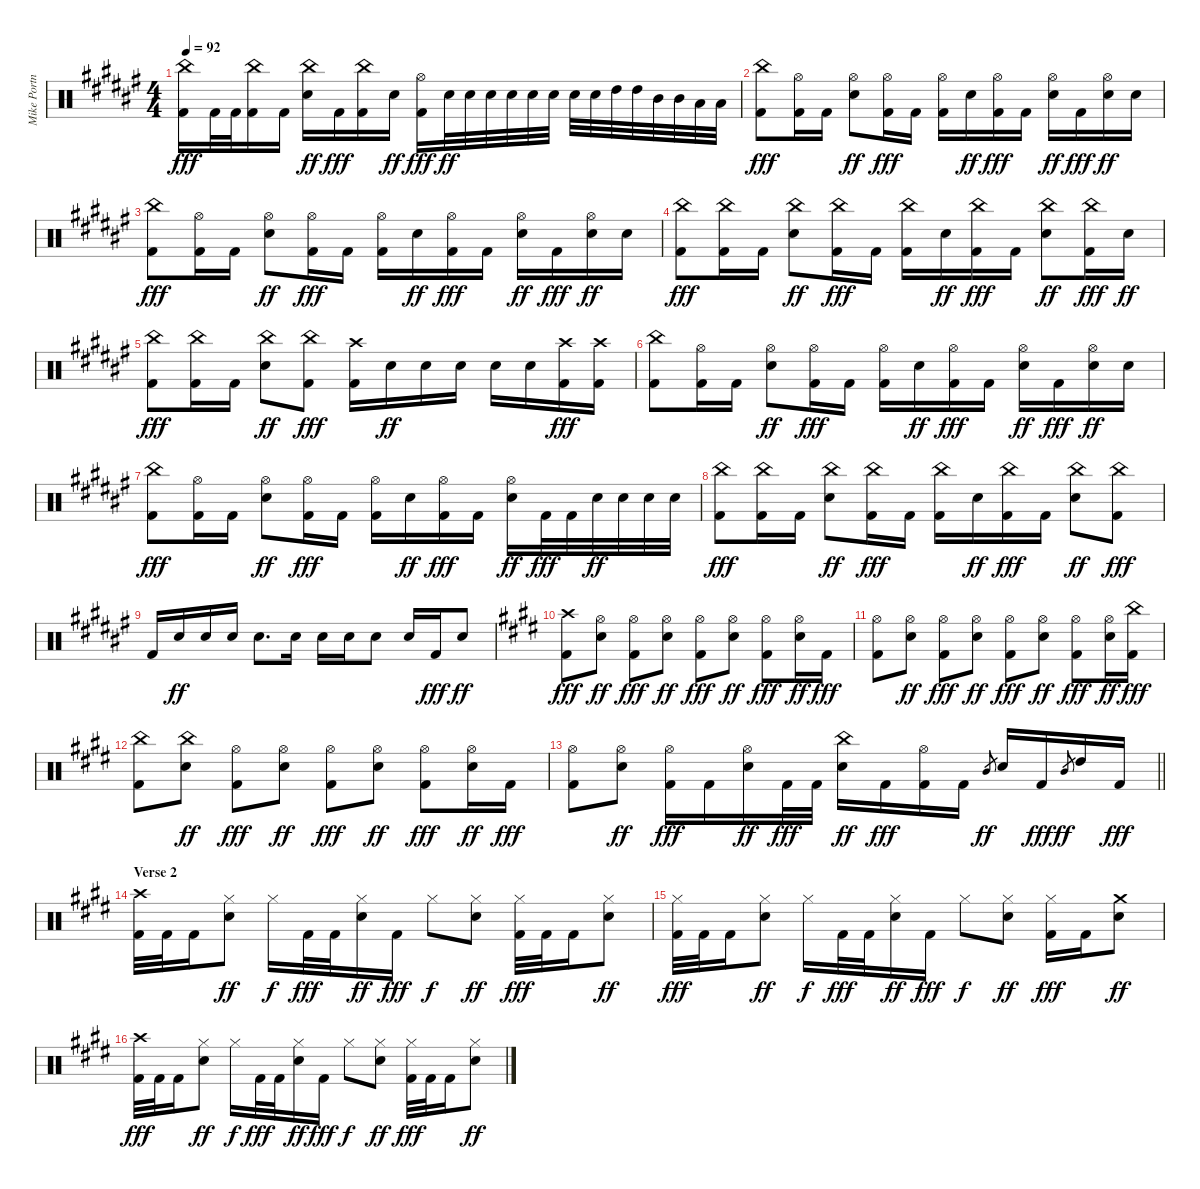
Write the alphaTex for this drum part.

\track ("Mike Portnoy" "Mike Portn") {instrument percussion}
\staff {score}
\articulation defaults
\ts (4 4)
\tempo 92
\clef neutral
\ks f#
("China (hit)" "Kick (hit) 2").16{dy fff} "Kick (hit) 2".32 "Kick (hit) 2".32 ("China (hit)" "Kick (hit) 2").16 "Kick (hit) 2".16 ("China (hit)" "Electric Snare (hit)").16{dy ff} "Kick (hit) 2".16{dy fff} ("China (hit)" "Kick (hit) 2").16 "Electric Snare (hit)".16{dy ff} ("Hi-Hat (open)" "Kick (hit) 2").16{dy fff} "Electric Snare (hit)".32{dy ff} "Electric Snare (hit)".32 "Electric Snare (hit)".32 "Electric Snare (hit)".32 "Electric Snare (hit)".32 "Electric Snare (hit)".32 "Electric Snare (hit)".32 "Electric Snare (hit)".32 "High Tom (hit)".32 "High Tom (hit)".32 "Mid Tom (hit)".32 "Mid Tom (hit)".32 "Low Tom (hit)".32 "Low Tom (hit)".32 |
("China (hit)" "Kick (hit) 2").8{dy fff} ("Hi-Hat (open)" "Kick (hit) 2").16 "Kick (hit) 2".16 ("Hi-Hat (open)" "Electric Snare (hit)").8{dy ff} ("Hi-Hat (open)" "Kick (hit) 2").16{dy fff} "Kick (hit) 2".16 ("Hi-Hat (open)" "Kick (hit) 2").16 "Electric Snare (hit)".16{dy ff} ("Hi-Hat (open)" "Kick (hit) 2").16{dy fff} "Kick (hit) 2".16 ("Hi-Hat (open)" "Electric Snare (hit)").16{dy ff} "Kick (hit) 2".16{dy fff} ("Hi-Hat (open)" "Electric Snare (hit)").16{dy ff} "Electric Snare (hit)".16 |
("China (hit)" "Kick (hit) 2").8{dy fff} ("Hi-Hat (open)" "Kick (hit) 2").16 "Kick (hit) 2".16 ("Hi-Hat (open)" "Electric Snare (hit)").8{dy ff} ("Hi-Hat (open)" "Kick (hit) 2").16{dy fff} "Kick (hit) 2".16 ("Hi-Hat (open)" "Kick (hit) 2").16 "Electric Snare (hit)".16{dy ff} ("Hi-Hat (open)" "Kick (hit) 2").16{dy fff} "Kick (hit) 2".16 ("Hi-Hat (open)" "Electric Snare (hit)").16{dy ff} "Kick (hit) 2".16{dy fff} ("Hi-Hat (open)" "Electric Snare (hit)").16{dy ff} "Electric Snare (hit)".16 |
("China (hit)" "Kick (hit) 2").8{dy fff} ("China (hit)" "Kick (hit) 2").16 "Kick (hit) 2".16 ("China (hit)" "Electric Snare (hit)").8{dy ff} ("China (hit)" "Kick (hit) 2").16{dy fff} "Kick (hit) 2".16 ("China (hit)" "Kick (hit) 2").16 "Electric Snare (hit)".16{dy ff} ("China (hit)" "Kick (hit) 2").16{dy fff} "Kick (hit) 2".16 ("China (hit)" "Electric Snare (hit)").8{dy ff} ("China (hit)" "Kick (hit) 2").16{dy fff} "Electric Snare (hit)".16{dy ff} |
("China (hit)" "Kick (hit) 2").8{dy fff} ("China (hit)" "Kick (hit) 2").16 "Kick (hit) 2".16 ("China (hit)" "Electric Snare (hit)").8{dy ff} ("China (hit)" "Kick (hit) 2").8{dy fff} ("Crash high (hit)" "Kick (hit) 2").16 "Electric Snare (hit)".16{dy ff} "Electric Snare (hit)".16 "Electric Snare (hit)".16 "Electric Snare (hit)".16 "Electric Snare (hit)".16 ("Crash high (hit)" "Kick (hit) 2").16{dy fff} ("Crash high (hit)" "Kick (hit) 2").16 |
("China (hit)" "Kick (hit) 2").8 ("Hi-Hat (open)" "Kick (hit) 2").16 "Kick (hit) 2".16 ("Hi-Hat (open)" "Electric Snare (hit)").8{dy ff} ("Hi-Hat (open)" "Kick (hit) 2").16{dy fff} "Kick (hit) 2".16 ("Hi-Hat (open)" "Kick (hit) 2").16 "Electric Snare (hit)".16{dy ff} ("Hi-Hat (open)" "Kick (hit) 2").16{dy fff} "Kick (hit) 2".16 ("Hi-Hat (open)" "Electric Snare (hit)").16{dy ff} "Kick (hit) 2".16{dy fff} ("Hi-Hat (open)" "Electric Snare (hit)").16{dy ff} "Electric Snare (hit)".16 |
("China (hit)" "Kick (hit) 2").8{dy fff} ("Hi-Hat (open)" "Kick (hit) 2").16 "Kick (hit) 2".16 ("Hi-Hat (open)" "Electric Snare (hit)").8{dy ff} ("Hi-Hat (open)" "Kick (hit) 2").16{dy fff} "Kick (hit) 2".16 ("Hi-Hat (open)" "Kick (hit) 2").16 "Electric Snare (hit)".16{dy ff} ("Hi-Hat (open)" "Kick (hit) 2").16{dy fff} "Kick (hit) 2".16 ("Hi-Hat (open)" "Electric Snare (hit)").16{dy ff} "Kick (hit) 2".32{dy fff} "Kick (hit) 2".32 "Electric Snare (hit)".32{dy ff} "Electric Snare (hit)".32 "Electric Snare (hit)".32 "Electric Snare (hit)".32 |
("China (hit)" "Kick (hit) 2").8{dy fff} ("China (hit)" "Kick (hit) 2").16 "Kick (hit) 2".16 ("China (hit)" "Electric Snare (hit)").8{dy ff} ("China (hit)" "Kick (hit) 2").16{dy fff} "Kick (hit) 2".16 ("China (hit)" "Kick (hit) 2").16 "Electric Snare (hit)".16{dy ff} ("China (hit)" "Kick (hit) 2").16{dy fff} "Kick (hit) 2".16 ("China (hit)" "Electric Snare (hit)").8{dy ff} ("China (hit)" "Kick (hit) 2").8{dy fff} |
"Kick (hit) 2".16 "Electric Snare (hit)".16{dy ff} "Electric Snare (hit)".16 "Electric Snare (hit)".16 "Electric Snare (hit)".8{d} "Electric Snare (hit)".16 "Electric Snare (hit)".16 "Electric Snare (hit)".16 "Electric Snare (hit)".8 "Electric Snare (hit)".16 "Kick (hit) 2".16{dy fff} "Electric Snare (hit)".8{dy ff} |
\ks e
("Crash high (hit)" "Kick (hit) 2").8{dy fff} ("Hi-Hat (open)" "Electric Snare (hit)").8{dy ff} ("Hi-Hat (open)" "Kick (hit) 2").8{dy fff} ("Hi-Hat (open)" "Electric Snare (hit)").8{dy ff} ("Hi-Hat (open)" "Kick (hit) 2").8{dy fff} ("Hi-Hat (open)" "Electric Snare (hit)").8{dy ff} ("Hi-Hat (open)" "Kick (hit) 2").8{dy fff} ("Hi-Hat (open)" "Electric Snare (hit)").16{dy ff} "Kick (hit) 2".16{dy fff} |
("Hi-Hat (open)" "Kick (hit) 2").8 ("Hi-Hat (open)" "Electric Snare (hit)").8{dy ff} ("Hi-Hat (open)" "Kick (hit) 2").8{dy fff} ("Hi-Hat (open)" "Electric Snare (hit)").8{dy ff} ("Hi-Hat (open)" "Kick (hit) 2").8{dy fff} ("Hi-Hat (open)" "Electric Snare (hit)").8{dy ff} ("Hi-Hat (open)" "Kick (hit) 2").8{dy fff} ("Hi-Hat (open)" "Electric Snare (hit)").16{dy ff} ("China (hit)" "Kick (hit) 2").16{dy fff} |
("China (hit)" "Kick (hit) 2").8 ("China (hit)" "Electric Snare (hit)").8{dy ff} ("Hi-Hat (open)" "Kick (hit) 2").8{dy fff} ("Hi-Hat (open)" "Electric Snare (hit)").8{dy ff} ("Hi-Hat (open)" "Kick (hit) 2").8{dy fff} ("Hi-Hat (open)" "Electric Snare (hit)").8{dy ff} ("Hi-Hat (open)" "Kick (hit) 2").8{dy fff} ("Hi-Hat (open)" "Electric Snare (hit)").16{dy ff} "Kick (hit) 2".16{dy fff} |
\barLineRight lightlight
("Hi-Hat (open)" "Kick (hit) 2").8 ("Hi-Hat (open)" "Electric Snare (hit)").8{dy ff} ("Hi-Hat (open)" "Kick (hit) 2").16{dy fff} "Kick (hit) 2".16 ("Hi-Hat (open)" "Electric Snare (hit)").16{dy ff} "Kick (hit) 2".32{dy fff} "Kick (hit) 2".32 ("China (hit)" "Electric Snare (hit)").16{dy ff} "Kick (hit) 2".16{dy fff} ("Hi-Hat (open)" "Kick (hit) 2").16 "Kick (hit) 2".16 "Mid Tom (hit)".8{gr dy ff} "Electric Snare (hit)".16 "Kick (hit) 2".16{dy fff} "Mid Tom (hit)".8{gr dy ff} "High Tom (hit)".16 "Kick (hit) 2".16{dy fff} |
\section ("" "Verse 2")
("Crash high (hit)" "Kick (hit) 2").32 "Kick (hit) 2".32 "Kick (hit) 2".16 ("Hi-Hat (closed)" "Electric Snare (hit)").8{dy ff} "Hi-Hat (closed)".16{dy f} "Kick (hit) 2".32{dy fff} "Kick (hit) 2".32 ("Hi-Hat (closed)" "Electric Snare (hit)").16{dy ff} "Kick (hit) 2".16{dy fff} "Hi-Hat (closed)".8{dy f} ("Hi-Hat (closed)" "Electric Snare (hit)").8{dy ff} ("Hi-Hat (closed)" "Kick (hit) 2").32{dy fff} "Kick (hit) 2".32 "Kick (hit) 2".16 ("Hi-Hat (closed)" "Electric Snare (hit)").8{dy ff} |
("Hi-Hat (closed)" "Kick (hit) 2").32{dy fff} "Kick (hit) 2".32 "Kick (hit) 2".16 ("Hi-Hat (closed)" "Electric Snare (hit)").8{dy ff} "Hi-Hat (closed)".16{dy f} "Kick (hit) 2".32{dy fff} "Kick (hit) 2".32 ("Hi-Hat (closed)" "Electric Snare (hit)").16{dy ff} "Kick (hit) 2".16{dy fff} "Hi-Hat (closed)".8{dy f} ("Hi-Hat (closed)" "Electric Snare (hit)").8{dy ff} ("Hi-Hat (closed)" "Kick (hit) 2").16{dy fff} "Kick (hit) 2".16 ("Crash medium (hit)" "Electric Snare (hit)").8{dy ff} |
("Crash high (hit)" "Kick (hit) 2").32{dy fff} "Kick (hit) 2".32 "Kick (hit) 2".16 ("Hi-Hat (closed)" "Electric Snare (hit)").8{dy ff} "Hi-Hat (closed)".16{dy f} "Kick (hit) 2".32{dy fff} "Kick (hit) 2".32 ("Hi-Hat (closed)" "Electric Snare (hit)").16{dy ff} "Kick (hit) 2".16{dy fff} "Hi-Hat (closed)".8{dy f} ("Hi-Hat (closed)" "Electric Snare (hit)").8{dy ff} ("Hi-Hat (closed)" "Kick (hit) 2").32{dy fff} "Kick (hit) 2".32 "Kick (hit) 2".16 ("Hi-Hat (closed)" "Electric Snare (hit)").8{dy ff}
